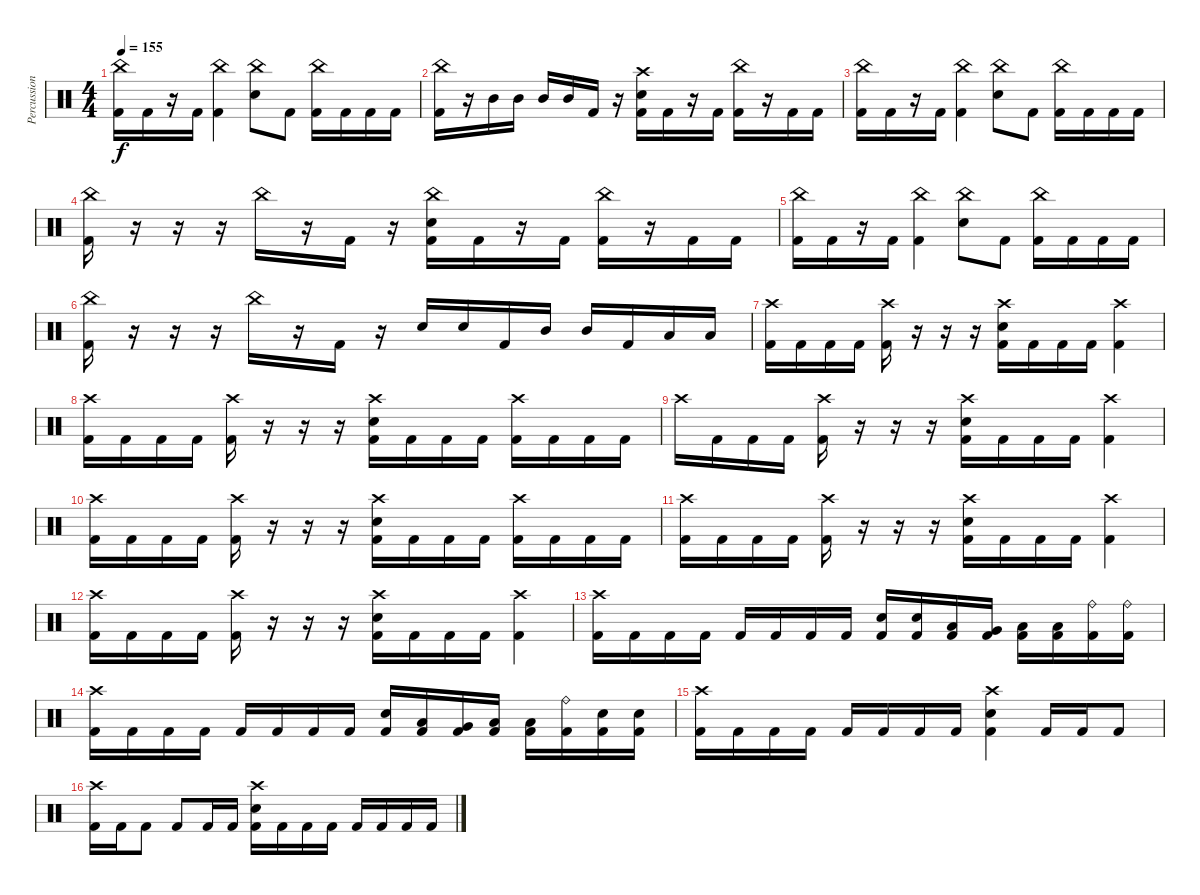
\track ("Percussion" "Percussion") {instrument percussion}
\staff {score}
\articulation defaults
\ts (4 4)
\tempo 155
\clef neutral
\ks c
("China (hit)" "Kick (hit) 2").16{dy f} "Kick (hit) 2".16 r.16 "Kick (hit) 2".16 ("China (hit)" "Kick (hit) 2").4 ("China (hit)" "Electric Snare (hit)").8 "Kick (hit) 2".8 ("China (hit)" "Kick (hit) 2").16 "Kick (hit) 2".16 "Kick (hit) 2".16 "Kick (hit) 2".16 |
("China (hit)" "Kick (hit) 2").16 r.16 "Mid Tom (hit)".16 "Mid Tom (hit)".16 "Mid Tom (hit)".16 "Mid Tom (hit)".16 "Kick (hit) 2".16 r.16 ("Crash high (hit)" "Electric Snare (hit)" "Kick (hit) 2").16 "Kick (hit) 2".16 r.16 "Kick (hit) 2".16 ("China (hit)" "Kick (hit) 2").16 r.16 "Kick (hit) 2".16 "Kick (hit) 2".16 |
("China (hit)" "Kick (hit) 2").16 "Kick (hit) 2".16 r.16 "Kick (hit) 2".16 ("China (hit)" "Kick (hit) 2").4 ("China (hit)" "Electric Snare (hit)").8 "Kick (hit) 2".8 ("China (hit)" "Kick (hit) 2").16 "Kick (hit) 2".16 "Kick (hit) 2".16 "Kick (hit) 2".16 |
("China (hit)" "Kick (hit) 2").16 r.16 r.16 r.16 "China (hit)".16 r.16 "Kick (hit) 2".16 r.16 ("China (hit)" "Electric Snare (hit)" "Kick (hit) 2").16 "Kick (hit) 2".16 r.16 "Kick (hit) 2".16 ("China (hit)" "Kick (hit) 2").16 r.16 "Kick (hit) 2".16 "Kick (hit) 2".16 |
("China (hit)" "Kick (hit) 2").16 "Kick (hit) 2".16 r.16 "Kick (hit) 2".16 ("China (hit)" "Kick (hit) 2").4 ("China (hit)" "Electric Snare (hit)").8 "Kick (hit) 2".8 ("China (hit)" "Kick (hit) 2").16 "Kick (hit) 2".16 "Kick (hit) 2".16 "Kick (hit) 2".16 |
("China (hit)" "Kick (hit) 2").16 r.16 r.16 r.16 "China (hit)".16 r.16 "Kick (hit) 2".16 r.16 "Electric Snare (hit)".16 "Electric Snare (hit)".16 "Kick (hit) 2".16 "Mid Tom (hit)".16 "Mid Tom (hit)".16 "Kick (hit) 2".16 "Low Floor Tom (hit)".16 "Low Floor Tom (hit)".16 |
("Crash high (hit)" "Kick (hit) 2").16 "Kick (hit) 2".16 "Kick (hit) 2".16 "Kick (hit) 2".16 ("Crash high (hit)" "Kick (hit) 2").16 r.16 r.16 r.16 ("Crash high (hit)" "Electric Snare (hit)" "Kick (hit) 2").16 "Kick (hit) 2".16 "Kick (hit) 2".16 "Kick (hit) 2".16 ("Crash high (hit)" "Kick (hit) 2").4 |
("Crash high (hit)" "Kick (hit) 2").16 "Kick (hit) 2".16 "Kick (hit) 2".16 "Kick (hit) 2".16 ("Crash high (hit)" "Kick (hit) 2").16 r.16 r.16 r.16 ("Crash high (hit)" "Electric Snare (hit)" "Kick (hit) 2").16 "Kick (hit) 2".16 "Kick (hit) 2".16 "Kick (hit) 2".16 ("Crash high (hit)" "Kick (hit) 2").16 "Kick (hit) 2".16 "Kick (hit) 2".16 "Kick (hit) 2".16 |
"Crash high (hit)".16 "Kick (hit) 2".16 "Kick (hit) 2".16 "Kick (hit) 2".16 ("Crash high (hit)" "Kick (hit) 2").16 r.16 r.16 r.16 ("Crash high (hit)" "Electric Snare (hit)" "Kick (hit) 2").16 "Kick (hit) 2".16 "Kick (hit) 2".16 "Kick (hit) 2".16 ("Crash high (hit)" "Kick (hit) 2").4 |
("Crash high (hit)" "Kick (hit) 2").16 "Kick (hit) 2".16 "Kick (hit) 2".16 "Kick (hit) 2".16 ("Crash high (hit)" "Kick (hit) 2").16 r.16 r.16 r.16 ("Crash high (hit)" "Electric Snare (hit)" "Kick (hit) 2").16 "Kick (hit) 2".16 "Kick (hit) 2".16 "Kick (hit) 2".16 ("Crash high (hit)" "Kick (hit) 2").16 "Kick (hit) 2".16 "Kick (hit) 2".16 "Kick (hit) 2".16 |
("Crash high (hit)" "Kick (hit) 2").16 "Kick (hit) 2".16 "Kick (hit) 2".16 "Kick (hit) 2".16 ("Crash high (hit)" "Kick (hit) 2").16 r.16 r.16 r.16 ("Crash high (hit)" "Electric Snare (hit)" "Kick (hit) 2").16 "Kick (hit) 2".16 "Kick (hit) 2".16 "Kick (hit) 2".16 ("Crash high (hit)" "Kick (hit) 2").4 |
("Crash high (hit)" "Kick (hit) 2").16 "Kick (hit) 2".16 "Kick (hit) 2".16 "Kick (hit) 2".16 ("Crash high (hit)" "Kick (hit) 2").16 r.16 r.16 r.16 ("Crash high (hit)" "Electric Snare (hit)" "Kick (hit) 2").16 "Kick (hit) 2".16 "Kick (hit) 2".16 "Kick (hit) 2".16 ("Crash high (hit)" "Kick (hit) 2").4 |
("Crash high (hit)" "Kick (hit) 2").16 "Kick (hit) 2".16 "Kick (hit) 2".16 "Kick (hit) 2".16 "Kick (hit) 2".16 "Kick (hit) 2".16 "Kick (hit) 2".16 "Kick (hit) 2".16 ("Electric Snare (hit)" "Kick (hit) 2").16 ("Electric Snare (hit)" "Kick (hit) 2").16 ("Low Floor Tom (hit)" "Kick (hit) 2").16 ("Very Low Tom (hit)" "Kick (hit) 2").16 ("Low Tom (hit)" "Kick (hit) 2").16 ("Low Tom (hit)" "Kick (hit) 2").16 ("Ride (bell)" "Kick (hit) 2").16 ("Ride (bell)" "Kick (hit) 2").16 |
("Crash high (hit)" "Kick (hit) 2").16 "Kick (hit) 2".16 "Kick (hit) 2".16 "Kick (hit) 2".16 "Kick (hit) 2".16 "Kick (hit) 2".16 "Kick (hit) 2".16 "Kick (hit) 2".16 ("Electric Snare (hit)" "Kick (hit) 2").16 ("Low Floor Tom (hit)" "Kick (hit) 2").16 ("Very Low Tom (hit)" "Kick (hit) 2").16 ("Low Tom (hit)" "Kick (hit) 2").16 ("Low Tom (hit)" "Kick (hit) 2").16 ("Ride (bell)" "Kick (hit) 2").16 ("Electric Snare (hit)" "Kick (hit) 2").16 ("Electric Snare (hit)" "Kick (hit) 2").16 |
("Crash high (hit)" "Kick (hit) 2").16 "Kick (hit) 2".16 "Kick (hit) 2".16 "Kick (hit) 2".16 "Kick (hit) 2".16 "Kick (hit) 2".16 "Kick (hit) 2".16 "Kick (hit) 2".16 ("Crash high (hit)" "Electric Snare (hit)" "Kick (hit) 2").4 "Kick (hit) 2".16 "Kick (hit) 2".16 "Kick (hit) 2".8 |
("Crash high (hit)" "Kick (hit) 2").16 "Kick (hit) 2".16 "Kick (hit) 2".8 "Kick (hit) 2".8 "Kick (hit) 2".16 "Kick (hit) 2".16 ("Crash high (hit)" "Electric Snare (hit)" "Kick (hit) 2").16 "Kick (hit) 2".16 "Kick (hit) 2".16 "Kick (hit) 2".16 "Kick (hit) 2".16 "Kick (hit) 2".16 "Kick (hit) 2".16 "Kick (hit) 2".16
